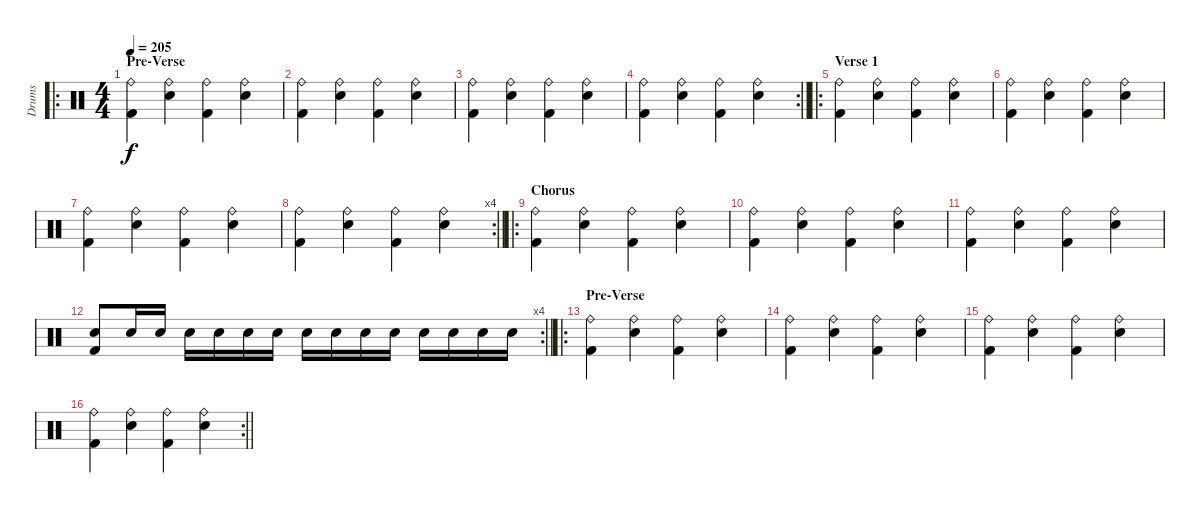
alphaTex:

\track ("Drums" "Drums") {instrument percussion}
\staff {score}
\articulation defaults
\ro
\ts (4 4)
\section ("" "Pre-Verse")
\tempo 205
\clef neutral
\ks c
("Ride (bell)" "Kick (hit) 2").4{dy f} ("Ride (bell)" "Snare (hit) 2").4 ("Ride (bell)" "Kick (hit) 2").4 ("Ride (bell)" "Snare (hit) 2").4 |
("Ride (bell)" "Kick (hit) 2").4 ("Ride (bell)" "Snare (hit) 2").4 ("Ride (bell)" "Kick (hit) 2").4 ("Ride (bell)" "Snare (hit) 2").4 |
("Ride (bell)" "Kick (hit) 2").4 ("Ride (bell)" "Snare (hit) 2").4 ("Ride (bell)" "Kick (hit) 2").4 ("Ride (bell)" "Snare (hit) 2").4 |
\rc 2
\barLineRight lightlight
("Ride (bell)" "Kick (hit) 2").4 ("Ride (bell)" "Snare (hit) 2").4 ("Ride (bell)" "Kick (hit) 2").4 ("Ride (bell)" "Snare (hit) 2").4 |
\ro
\section ("" "Verse 1")
("Ride (bell)" "Kick (hit) 2").4 ("Ride (bell)" "Snare (hit) 2").4 ("Ride (bell)" "Kick (hit) 2").4 ("Ride (bell)" "Snare (hit) 2").4 |
("Ride (bell)" "Kick (hit) 2").4 ("Ride (bell)" "Snare (hit) 2").4 ("Ride (bell)" "Kick (hit) 2").4 ("Ride (bell)" "Snare (hit) 2").4 |
("Ride (bell)" "Kick (hit) 2").4 ("Ride (bell)" "Snare (hit) 2").4 ("Ride (bell)" "Kick (hit) 2").4 ("Ride (bell)" "Snare (hit) 2").4 |
\rc 4
\barLineRight lightlight
("Ride (bell)" "Kick (hit) 2").4 ("Ride (bell)" "Snare (hit) 2").4 ("Ride (bell)" "Kick (hit) 2").4 ("Ride (bell)" "Snare (hit) 2").4 |
\ro
\section ("" "Chorus")
("Ride (bell)" "Kick (hit) 2").4 ("Ride (bell)" "Snare (hit) 2").4 ("Ride (bell)" "Kick (hit) 2").4 ("Ride (bell)" "Snare (hit) 2").4 |
("Ride (bell)" "Kick (hit) 2").4 ("Ride (bell)" "Snare (hit) 2").4 ("Ride (bell)" "Kick (hit) 2").4 ("Ride (bell)" "Snare (hit) 2").4 |
("Ride (bell)" "Kick (hit) 2").4 ("Ride (bell)" "Snare (hit) 2").4 ("Ride (bell)" "Kick (hit) 2").4 ("Ride (bell)" "Snare (hit) 2").4 |
\rc 4
\barLineRight lightlight
("Snare (hit) 2" "Kick (hit) 2").8 "Snare (hit) 2".16 "Snare (hit) 2".16 "Snare (hit) 2".16 "Snare (hit) 2".16 "Snare (hit) 2".16 "Snare (hit) 2".16 "Snare (hit) 2".16 "Snare (hit) 2".16 "Snare (hit) 2".16 "Snare (hit) 2".16 "Snare (hit) 2".16 "Snare (hit) 2".16 "Snare (hit) 2".16 "Snare (hit) 2".16 |
\ro
\section ("" "Pre-Verse")
("Ride (bell)" "Kick (hit) 2").4 ("Ride (bell)" "Snare (hit) 2").4 ("Ride (bell)" "Kick (hit) 2").4 ("Ride (bell)" "Snare (hit) 2").4 |
("Ride (bell)" "Kick (hit) 2").4 ("Ride (bell)" "Snare (hit) 2").4 ("Ride (bell)" "Kick (hit) 2").4 ("Ride (bell)" "Snare (hit) 2").4 |
("Ride (bell)" "Kick (hit) 2").4 ("Ride (bell)" "Snare (hit) 2").4 ("Ride (bell)" "Kick (hit) 2").4 ("Ride (bell)" "Snare (hit) 2").4 |
\rc 2
\barLineRight lightlight
("Ride (bell)" "Kick (hit) 2").4 ("Ride (bell)" "Snare (hit) 2").4 ("Ride (bell)" "Kick (hit) 2").4 ("Ride (bell)" "Snare (hit) 2").4
